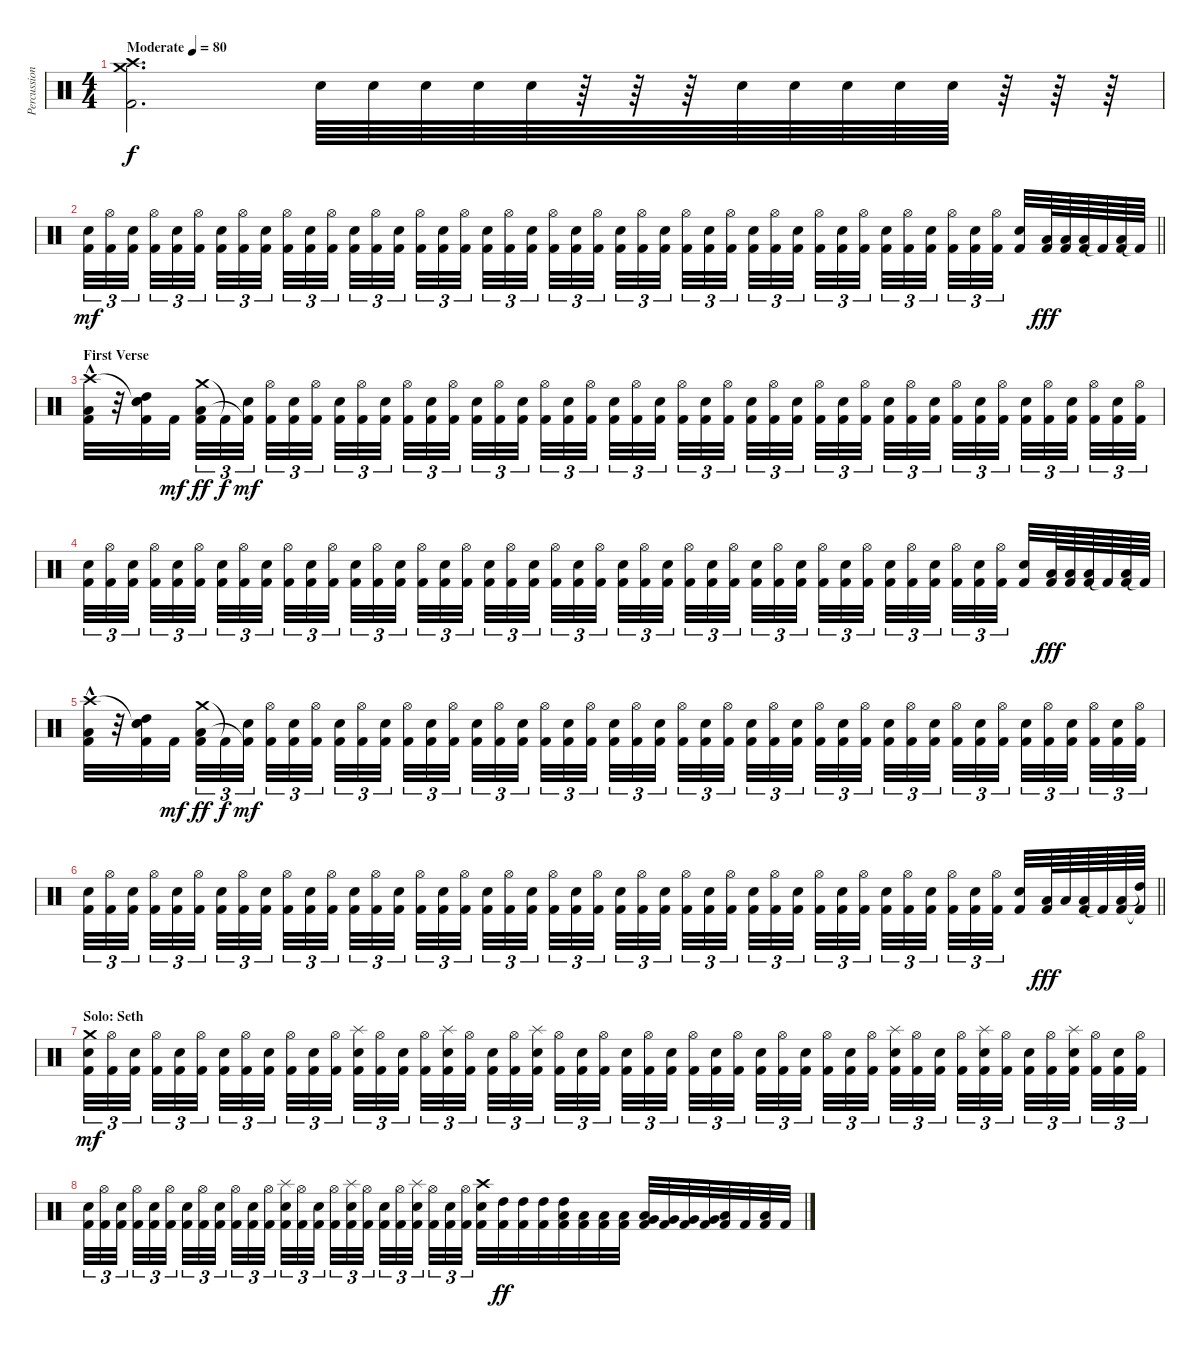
\track ("Percussion" "Percussion") {instrument percussion}
\staff {score}
\articulation defaults
\ts (4 4)
\tempo (80 "Moderate")
\clef neutral
\ks c
("Crash medium (hit)" "Crash high (hit)" "Kick (hit) 2").2{d dy f} "Snare (hit) 2".64 "Snare (hit) 2".64 "Snare (hit) 2".64 "Snare (hit) 2".64 "Snare (hit) 2".64 r.64 r.64 r.64 "Snare (hit) 2".64 "Snare (hit) 2".64 "Snare (hit) 2".64 "Snare (hit) 2".64 "Snare (hit) 2".64 r.64 r.64 r.64 |
\barLineRight lightlight
("Snare (hit) 2" "Kick (hit) 2").32{tu (3 2) dy mf} ("Hi-Hat (open)" "Kick (hit) 2").32{tu (3 2)} ("Snare (hit) 2" "Kick (hit) 2").32{tu (3 2) beam splitsecondary} ("Hi-Hat (open)" "Kick (hit) 2").32{tu (3 2)} ("Snare (hit) 2" "Kick (hit) 2").32{tu (3 2)} ("Hi-Hat (open)" "Kick (hit) 2").32{tu (3 2) beam splitsecondary} ("Snare (hit) 2" "Kick (hit) 2").32{tu (3 2)} ("Hi-Hat (open)" "Kick (hit) 2").32{tu (3 2)} ("Snare (hit) 2" "Kick (hit) 2").32{tu (3 2) beam splitsecondary} ("Hi-Hat (open)" "Kick (hit) 2").32{tu (3 2)} ("Snare (hit) 2" "Kick (hit) 2").32{tu (3 2)} ("Hi-Hat (open)" "Kick (hit) 2").32{tu (3 2)} ("Snare (hit) 2" "Kick (hit) 2").32{tu (3 2)} ("Hi-Hat (open)" "Kick (hit) 2").32{tu (3 2)} ("Snare (hit) 2" "Kick (hit) 2").32{tu (3 2) beam splitsecondary} ("Hi-Hat (open)" "Kick (hit) 2").32{tu (3 2)} ("Snare (hit) 2" "Kick (hit) 2").32{tu (3 2)} ("Hi-Hat (open)" "Kick (hit) 2").32{tu (3 2) beam splitsecondary} ("Snare (hit) 2" "Kick (hit) 2").32{tu (3 2)} ("Hi-Hat (open)" "Kick (hit) 2").32{tu (3 2)} ("Snare (hit) 2" "Kick (hit) 2").32{tu (3 2) beam splitsecondary} ("Hi-Hat (open)" "Kick (hit) 2").32{tu (3 2)} ("Snare (hit) 2" "Kick (hit) 2").32{tu (3 2)} ("Hi-Hat (open)" "Kick (hit) 2").32{tu (3 2)} ("Snare (hit) 2" "Kick (hit) 2").32{tu (3 2)} ("Hi-Hat (open)" "Kick (hit) 2").32{tu (3 2)} ("Snare (hit) 2" "Kick (hit) 2").32{tu (3 2) beam splitsecondary} ("Hi-Hat (open)" "Kick (hit) 2").32{tu (3 2)} ("Snare (hit) 2" "Kick (hit) 2").32{tu (3 2)} ("Hi-Hat (open)" "Kick (hit) 2").32{tu (3 2) beam splitsecondary} ("Snare (hit) 2" "Kick (hit) 2").32{tu (3 2)} ("Hi-Hat (open)" "Kick (hit) 2").32{tu (3 2)} ("Snare (hit) 2" "Kick (hit) 2").32{tu (3 2) beam splitsecondary} ("Hi-Hat (open)" "Kick (hit) 2").32{tu (3 2)} ("Snare (hit) 2" "Kick (hit) 2").32{tu (3 2)} ("Hi-Hat (open)" "Kick (hit) 2").32{tu (3 2)} ("Snare (hit) 2" "Kick (hit) 2").32{tu (3 2)} ("Hi-Hat (open)" "Kick (hit) 2").32{tu (3 2)} ("Snare (hit) 2" "Kick (hit) 2").32{tu (3 2) beam splitsecondary} ("Hi-Hat (open)" "Kick (hit) 2").32{tu (3 2)} ("Snare (hit) 2" "Kick (hit) 2").32{tu (3 2)} ("Hi-Hat (open)" "Kick (hit) 2").32{tu (3 2) beam splitsecondary} ("Snare (hit) 2" "Kick (hit) 2").32 ("Low Floor Tom (hit)" "Kick (hit) 2").64{dy fff} ("Low Floor Tom (hit)" "Kick (hit) 2").64 ("Low Floor Tom (hit)" "Kick (hit) 2").64 "Kick (hit) 2"{t}.64 ("Low Tom (hit)" "Kick (hit) 2").64 "Kick (hit) 2"{t}.64 |
\section ("" "First Verse")
("Crash high (hit)" "Low Tom (hit)"{hac} "Kick (hit) 2").32 r.32 ("Snare (hit)"{t} "Snare (hit) 2" "High Tom (hit)" "Kick (hit) 2").32 "Kick (hit) 2".32{dy mf beam splitsecondary} ("Crash medium (hit)" "Low Tom (hit)" "Kick (hit) 2").32{tu (3 2) dy ff} "Kick (hit) 2"{t}.32{tu (3 2) dy f} ("Snare (hit) 2" "Kick (hit) 2"{t}).32{tu (3 2) dy mf beam splitsecondary} ("Hi-Hat (open)" "Kick (hit) 2").32{tu (3 2)} ("Snare (hit) 2" "Kick (hit) 2").32{tu (3 2)} ("Hi-Hat (open)" "Kick (hit) 2").32{tu (3 2)} ("Snare (hit) 2" "Kick (hit) 2").32{tu (3 2)} ("Hi-Hat (open)" "Kick (hit) 2").32{tu (3 2)} ("Snare (hit) 2" "Kick (hit) 2").32{tu (3 2) beam splitsecondary} ("Hi-Hat (open)" "Kick (hit) 2").32{tu (3 2)} ("Snare (hit) 2" "Kick (hit) 2").32{tu (3 2)} ("Hi-Hat (open)" "Kick (hit) 2").32{tu (3 2) beam splitsecondary} ("Snare (hit) 2" "Kick (hit) 2").32{tu (3 2)} ("Hi-Hat (open)" "Kick (hit) 2").32{tu (3 2)} ("Snare (hit) 2" "Kick (hit) 2").32{tu (3 2) beam splitsecondary} ("Hi-Hat (open)" "Kick (hit) 2").32{tu (3 2)} ("Snare (hit) 2" "Kick (hit) 2").32{tu (3 2)} ("Hi-Hat (open)" "Kick (hit) 2").32{tu (3 2)} ("Snare (hit) 2" "Kick (hit) 2").32{tu (3 2)} ("Hi-Hat (open)" "Kick (hit) 2").32{tu (3 2)} ("Snare (hit) 2" "Kick (hit) 2").32{tu (3 2) beam splitsecondary} ("Hi-Hat (open)" "Kick (hit) 2").32{tu (3 2)} ("Snare (hit) 2" "Kick (hit) 2").32{tu (3 2)} ("Hi-Hat (open)" "Kick (hit) 2").32{tu (3 2) beam splitsecondary} ("Snare (hit) 2" "Kick (hit) 2").32{tu (3 2)} ("Hi-Hat (open)" "Kick (hit) 2").32{tu (3 2)} ("Snare (hit) 2" "Kick (hit) 2").32{tu (3 2) beam splitsecondary} ("Hi-Hat (open)" "Kick (hit) 2").32{tu (3 2)} ("Snare (hit) 2" "Kick (hit) 2").32{tu (3 2)} ("Hi-Hat (open)" "Kick (hit) 2").32{tu (3 2)} ("Snare (hit) 2" "Kick (hit) 2").32{tu (3 2)} ("Hi-Hat (open)" "Kick (hit) 2").32{tu (3 2)} ("Snare (hit) 2" "Kick (hit) 2").32{tu (3 2) beam splitsecondary} ("Hi-Hat (open)" "Kick (hit) 2").32{tu (3 2)} ("Snare (hit) 2" "Kick (hit) 2").32{tu (3 2)} ("Hi-Hat (open)" "Kick (hit) 2").32{tu (3 2) beam splitsecondary} ("Snare (hit) 2" "Kick (hit) 2").32{tu (3 2)} ("Hi-Hat (open)" "Kick (hit) 2").32{tu (3 2)} ("Snare (hit) 2" "Kick (hit) 2").32{tu (3 2) beam splitsecondary} ("Hi-Hat (open)" "Kick (hit) 2").32{tu (3 2)} ("Snare (hit) 2" "Kick (hit) 2").32{tu (3 2)} ("Hi-Hat (open)" "Kick (hit) 2").32{tu (3 2)} |
("Snare (hit) 2" "Kick (hit) 2").32{tu (3 2)} ("Hi-Hat (open)" "Kick (hit) 2").32{tu (3 2)} ("Snare (hit) 2" "Kick (hit) 2").32{tu (3 2) beam splitsecondary} ("Hi-Hat (open)" "Kick (hit) 2").32{tu (3 2)} ("Snare (hit) 2" "Kick (hit) 2").32{tu (3 2)} ("Hi-Hat (open)" "Kick (hit) 2").32{tu (3 2) beam splitsecondary} ("Snare (hit) 2" "Kick (hit) 2").32{tu (3 2)} ("Hi-Hat (open)" "Kick (hit) 2").32{tu (3 2)} ("Snare (hit) 2" "Kick (hit) 2").32{tu (3 2) beam splitsecondary} ("Hi-Hat (open)" "Kick (hit) 2").32{tu (3 2)} ("Snare (hit) 2" "Kick (hit) 2").32{tu (3 2)} ("Hi-Hat (open)" "Kick (hit) 2").32{tu (3 2)} ("Snare (hit) 2" "Kick (hit) 2").32{tu (3 2)} ("Hi-Hat (open)" "Kick (hit) 2").32{tu (3 2)} ("Snare (hit) 2" "Kick (hit) 2").32{tu (3 2) beam splitsecondary} ("Hi-Hat (open)" "Kick (hit) 2").32{tu (3 2)} ("Snare (hit) 2" "Kick (hit) 2").32{tu (3 2)} ("Hi-Hat (open)" "Kick (hit) 2").32{tu (3 2) beam splitsecondary} ("Snare (hit) 2" "Kick (hit) 2").32{tu (3 2)} ("Hi-Hat (open)" "Kick (hit) 2").32{tu (3 2)} ("Snare (hit) 2" "Kick (hit) 2").32{tu (3 2) beam splitsecondary} ("Hi-Hat (open)" "Kick (hit) 2").32{tu (3 2)} ("Snare (hit) 2" "Kick (hit) 2").32{tu (3 2)} ("Hi-Hat (open)" "Kick (hit) 2").32{tu (3 2)} ("Snare (hit) 2" "Kick (hit) 2").32{tu (3 2)} ("Hi-Hat (open)" "Kick (hit) 2").32{tu (3 2)} ("Snare (hit) 2" "Kick (hit) 2").32{tu (3 2) beam splitsecondary} ("Hi-Hat (open)" "Kick (hit) 2").32{tu (3 2)} ("Snare (hit) 2" "Kick (hit) 2").32{tu (3 2)} ("Hi-Hat (open)" "Kick (hit) 2").32{tu (3 2) beam splitsecondary} ("Snare (hit) 2" "Kick (hit) 2").32{tu (3 2)} ("Hi-Hat (open)" "Kick (hit) 2").32{tu (3 2)} ("Snare (hit) 2" "Kick (hit) 2").32{tu (3 2) beam splitsecondary} ("Hi-Hat (open)" "Kick (hit) 2").32{tu (3 2)} ("Snare (hit) 2" "Kick (hit) 2").32{tu (3 2)} ("Hi-Hat (open)" "Kick (hit) 2").32{tu (3 2)} ("Snare (hit) 2" "Kick (hit) 2").32{tu (3 2)} ("Hi-Hat (open)" "Kick (hit) 2").32{tu (3 2)} ("Snare (hit) 2" "Kick (hit) 2").32{tu (3 2) beam splitsecondary} ("Hi-Hat (open)" "Kick (hit) 2").32{tu (3 2)} ("Snare (hit) 2" "Kick (hit) 2").32{tu (3 2)} ("Hi-Hat (open)" "Kick (hit) 2").32{tu (3 2) beam splitsecondary} ("Snare (hit) 2" "Kick (hit) 2").32 ("Low Floor Tom (hit)" "Kick (hit) 2").64{dy fff} ("Low Floor Tom (hit)" "Kick (hit) 2").64 ("Low Floor Tom (hit)" "Kick (hit) 2").64 "Kick (hit) 2"{t}.64 ("Low Tom (hit)" "Kick (hit) 2").64 "Kick (hit) 2"{t}.64 |
("Crash high (hit)" "Low Tom (hit)"{hac} "Kick (hit) 2").32 r.32 ("Snare (hit)"{t} "Snare (hit) 2" "High Tom (hit)" "Kick (hit) 2").32 "Kick (hit) 2".32{dy mf beam splitsecondary} ("Crash medium (hit)" "Low Tom (hit)" "Kick (hit) 2").32{tu (3 2) dy ff} "Kick (hit) 2"{t}.32{tu (3 2) dy f} ("Snare (hit) 2" "Kick (hit) 2"{t}).32{tu (3 2) dy mf beam splitsecondary} ("Hi-Hat (open)" "Kick (hit) 2").32{tu (3 2)} ("Snare (hit) 2" "Kick (hit) 2").32{tu (3 2)} ("Hi-Hat (open)" "Kick (hit) 2").32{tu (3 2)} ("Snare (hit) 2" "Kick (hit) 2").32{tu (3 2)} ("Hi-Hat (open)" "Kick (hit) 2").32{tu (3 2)} ("Snare (hit) 2" "Kick (hit) 2").32{tu (3 2) beam splitsecondary} ("Hi-Hat (open)" "Kick (hit) 2").32{tu (3 2)} ("Snare (hit) 2" "Kick (hit) 2").32{tu (3 2)} ("Hi-Hat (open)" "Kick (hit) 2").32{tu (3 2) beam splitsecondary} ("Snare (hit) 2" "Kick (hit) 2").32{tu (3 2)} ("Hi-Hat (open)" "Kick (hit) 2").32{tu (3 2)} ("Snare (hit) 2" "Kick (hit) 2").32{tu (3 2) beam splitsecondary} ("Hi-Hat (open)" "Kick (hit) 2").32{tu (3 2)} ("Snare (hit) 2" "Kick (hit) 2").32{tu (3 2)} ("Hi-Hat (open)" "Kick (hit) 2").32{tu (3 2)} ("Snare (hit) 2" "Kick (hit) 2").32{tu (3 2)} ("Hi-Hat (open)" "Kick (hit) 2").32{tu (3 2)} ("Snare (hit) 2" "Kick (hit) 2").32{tu (3 2) beam splitsecondary} ("Hi-Hat (open)" "Kick (hit) 2").32{tu (3 2)} ("Snare (hit) 2" "Kick (hit) 2").32{tu (3 2)} ("Hi-Hat (open)" "Kick (hit) 2").32{tu (3 2) beam splitsecondary} ("Snare (hit) 2" "Kick (hit) 2").32{tu (3 2)} ("Hi-Hat (open)" "Kick (hit) 2").32{tu (3 2)} ("Snare (hit) 2" "Kick (hit) 2").32{tu (3 2) beam splitsecondary} ("Hi-Hat (open)" "Kick (hit) 2").32{tu (3 2)} ("Snare (hit) 2" "Kick (hit) 2").32{tu (3 2)} ("Hi-Hat (open)" "Kick (hit) 2").32{tu (3 2)} ("Snare (hit) 2" "Kick (hit) 2").32{tu (3 2)} ("Hi-Hat (open)" "Kick (hit) 2").32{tu (3 2)} ("Snare (hit) 2" "Kick (hit) 2").32{tu (3 2) beam splitsecondary} ("Hi-Hat (open)" "Kick (hit) 2").32{tu (3 2)} ("Snare (hit) 2" "Kick (hit) 2").32{tu (3 2)} ("Hi-Hat (open)" "Kick (hit) 2").32{tu (3 2) beam splitsecondary} ("Snare (hit) 2" "Kick (hit) 2").32{tu (3 2)} ("Hi-Hat (open)" "Kick (hit) 2").32{tu (3 2)} ("Snare (hit) 2" "Kick (hit) 2").32{tu (3 2) beam splitsecondary} ("Hi-Hat (open)" "Kick (hit) 2").32{tu (3 2)} ("Snare (hit) 2" "Kick (hit) 2").32{tu (3 2)} ("Hi-Hat (open)" "Kick (hit) 2").32{tu (3 2)} |
\barLineRight lightlight
("Snare (hit) 2" "Kick (hit) 2").32{tu (3 2)} ("Hi-Hat (open)" "Kick (hit) 2").32{tu (3 2)} ("Snare (hit) 2" "Kick (hit) 2").32{tu (3 2) beam splitsecondary} ("Hi-Hat (open)" "Kick (hit) 2").32{tu (3 2)} ("Snare (hit) 2" "Kick (hit) 2").32{tu (3 2)} ("Hi-Hat (open)" "Kick (hit) 2").32{tu (3 2) beam splitsecondary} ("Snare (hit) 2" "Kick (hit) 2").32{tu (3 2)} ("Hi-Hat (open)" "Kick (hit) 2").32{tu (3 2)} ("Snare (hit) 2" "Kick (hit) 2").32{tu (3 2) beam splitsecondary} ("Hi-Hat (open)" "Kick (hit) 2").32{tu (3 2)} ("Snare (hit) 2" "Kick (hit) 2").32{tu (3 2)} ("Hi-Hat (open)" "Kick (hit) 2").32{tu (3 2)} ("Snare (hit) 2" "Kick (hit) 2").32{tu (3 2)} ("Hi-Hat (open)" "Kick (hit) 2").32{tu (3 2)} ("Snare (hit) 2" "Kick (hit) 2").32{tu (3 2) beam splitsecondary} ("Hi-Hat (open)" "Kick (hit) 2").32{tu (3 2)} ("Snare (hit) 2" "Kick (hit) 2").32{tu (3 2)} ("Hi-Hat (open)" "Kick (hit) 2").32{tu (3 2) beam splitsecondary} ("Snare (hit) 2" "Kick (hit) 2").32{tu (3 2)} ("Hi-Hat (open)" "Kick (hit) 2").32{tu (3 2)} ("Snare (hit) 2" "Kick (hit) 2").32{tu (3 2) beam splitsecondary} ("Hi-Hat (open)" "Kick (hit) 2").32{tu (3 2)} ("Snare (hit) 2" "Kick (hit) 2").32{tu (3 2)} ("Hi-Hat (open)" "Kick (hit) 2").32{tu (3 2)} ("Snare (hit) 2" "Kick (hit) 2").32{tu (3 2)} ("Hi-Hat (open)" "Kick (hit) 2").32{tu (3 2)} ("Snare (hit) 2" "Kick (hit) 2").32{tu (3 2) beam splitsecondary} ("Hi-Hat (open)" "Kick (hit) 2").32{tu (3 2)} ("Snare (hit) 2" "Kick (hit) 2").32{tu (3 2)} ("Hi-Hat (open)" "Kick (hit) 2").32{tu (3 2) beam splitsecondary} ("Snare (hit) 2" "Kick (hit) 2").32{tu (3 2)} ("Hi-Hat (open)" "Kick (hit) 2").32{tu (3 2)} ("Snare (hit) 2" "Kick (hit) 2").32{tu (3 2) beam splitsecondary} ("Hi-Hat (open)" "Kick (hit) 2").32{tu (3 2)} ("Snare (hit) 2" "Kick (hit) 2").32{tu (3 2)} ("Hi-Hat (open)" "Kick (hit) 2").32{tu (3 2)} ("Snare (hit) 2" "Kick (hit) 2").32{tu (3 2)} ("Hi-Hat (open)" "Kick (hit) 2").32{tu (3 2)} ("Snare (hit) 2" "Kick (hit) 2").32{tu (3 2) beam splitsecondary} ("Hi-Hat (open)" "Kick (hit) 2").32{tu (3 2)} ("Snare (hit) 2" "Kick (hit) 2").32{tu (3 2)} ("Hi-Hat (open)" "Kick (hit) 2").32{tu (3 2) beam splitsecondary} ("Snare (hit) 2" "Kick (hit) 2").32 ("Low Floor Tom (hit)" "Kick (hit) 2").64{dy fff} "Low Floor Tom (hit)".64 ("Low Floor Tom (hit)" "Kick (hit) 2").64 "Kick (hit) 2"{t}.64 ("Low Tom (hit)" "Kick (hit) 2").64 ("High Tom (hit)"{t} "Kick (hit) 2"{t}).64 |
\section ("" "Solo: Seth")
("Crash medium (hit)" "Snare (hit) 2" "Kick (hit) 2").32{tu (3 2) dy mf} ("Hi-Hat (open)" "Kick (hit) 2").32{tu (3 2)} ("Snare (hit) 2" "Kick (hit) 2").32{tu (3 2) beam splitsecondary} ("Hi-Hat (open)" "Kick (hit) 2").32{tu (3 2)} ("Snare (hit) 2" "Kick (hit) 2").32{tu (3 2)} ("Hi-Hat (open)" "Kick (hit) 2").32{tu (3 2) beam splitsecondary} ("Snare (hit) 2" "Kick (hit) 2").32{tu (3 2)} ("Hi-Hat (open)" "Kick (hit) 2").32{tu (3 2)} ("Snare (hit) 2" "Kick (hit) 2").32{tu (3 2) beam splitsecondary} ("Hi-Hat (open)" "Kick (hit) 2").32{tu (3 2)} ("Snare (hit) 2" "Kick (hit) 2").32{tu (3 2)} ("Hi-Hat (open)" "Kick (hit) 2").32{tu (3 2)} ("Splash (hit)" "Snare (hit) 2" "Kick (hit) 2").32{tu (3 2)} ("Hi-Hat (open)" "Kick (hit) 2").32{tu (3 2)} ("Snare (hit) 2" "Kick (hit) 2").32{tu (3 2) beam splitsecondary} ("Hi-Hat (open)" "Kick (hit) 2").32{tu (3 2)} ("Splash (hit)" "Snare (hit) 2" "Kick (hit) 2").32{tu (3 2)} ("Hi-Hat (open)" "Kick (hit) 2").32{tu (3 2) beam splitsecondary} ("Snare (hit) 2" "Kick (hit) 2").32{tu (3 2)} ("Hi-Hat (open)" "Kick (hit) 2").32{tu (3 2)} ("Splash (hit)" "Snare (hit) 2" "Kick (hit) 2").32{tu (3 2) beam splitsecondary} ("Hi-Hat (open)" "Kick (hit) 2").32{tu (3 2)} ("Snare (hit) 2" "Kick (hit) 2").32{tu (3 2)} ("Hi-Hat (open)" "Kick (hit) 2").32{tu (3 2)} ("Snare (hit) 2" "Kick (hit) 2").32{tu (3 2)} ("Hi-Hat (open)" "Kick (hit) 2").32{tu (3 2)} ("Snare (hit) 2" "Kick (hit) 2").32{tu (3 2) beam splitsecondary} ("Hi-Hat (open)" "Kick (hit) 2").32{tu (3 2)} ("Snare (hit) 2" "Kick (hit) 2").32{tu (3 2)} ("Hi-Hat (open)" "Kick (hit) 2").32{tu (3 2) beam splitsecondary} ("Snare (hit) 2" "Kick (hit) 2").32{tu (3 2)} ("Hi-Hat (open)" "Kick (hit) 2").32{tu (3 2)} ("Snare (hit) 2" "Kick (hit) 2").32{tu (3 2) beam splitsecondary} ("Hi-Hat (open)" "Kick (hit) 2").32{tu (3 2)} ("Snare (hit) 2" "Kick (hit) 2").32{tu (3 2)} ("Hi-Hat (open)" "Kick (hit) 2").32{tu (3 2)} ("Splash (hit)" "Snare (hit) 2" "Kick (hit) 2").32{tu (3 2)} ("Hi-Hat (open)" "Kick (hit) 2").32{tu (3 2)} ("Snare (hit) 2" "Kick (hit) 2").32{tu (3 2) beam splitsecondary} ("Hi-Hat (open)" "Kick (hit) 2").32{tu (3 2)} ("Splash (hit)" "Snare (hit) 2" "Kick (hit) 2").32{tu (3 2)} ("Hi-Hat (open)" "Kick (hit) 2").32{tu (3 2) beam splitsecondary} ("Snare (hit) 2" "Kick (hit) 2").32{tu (3 2)} ("Hi-Hat (open)" "Kick (hit) 2").32{tu (3 2)} ("Splash (hit)" "Snare (hit) 2" "Kick (hit) 2").32{tu (3 2) beam splitsecondary} ("Hi-Hat (open)" "Kick (hit) 2").32{tu (3 2)} ("Snare (hit) 2" "Kick (hit) 2").32{tu (3 2)} ("Hi-Hat (open)" "Kick (hit) 2").32{tu (3 2)} |
("Snare (hit) 2" "Kick (hit) 2").32{tu (3 2)} ("Hi-Hat (open)" "Kick (hit) 2").32{tu (3 2)} ("Snare (hit) 2" "Kick (hit) 2").32{tu (3 2) beam splitsecondary} ("Hi-Hat (open)" "Kick (hit) 2").32{tu (3 2)} ("Snare (hit) 2" "Kick (hit) 2").32{tu (3 2)} ("Hi-Hat (open)" "Kick (hit) 2").32{tu (3 2) beam splitsecondary} ("Snare (hit) 2" "Kick (hit) 2").32{tu (3 2)} ("Hi-Hat (open)" "Kick (hit) 2").32{tu (3 2)} ("Snare (hit) 2" "Kick (hit) 2").32{tu (3 2) beam splitsecondary} ("Hi-Hat (open)" "Kick (hit) 2").32{tu (3 2)} ("Snare (hit) 2" "Kick (hit) 2").32{tu (3 2)} ("Hi-Hat (open)" "Kick (hit) 2").32{tu (3 2)} ("Splash (hit)" "Snare (hit) 2" "Kick (hit) 2").32{tu (3 2)} ("Hi-Hat (open)" "Kick (hit) 2").32{tu (3 2)} ("Snare (hit) 2" "Kick (hit) 2").32{tu (3 2) beam splitsecondary} ("Hi-Hat (open)" "Kick (hit) 2").32{tu (3 2)} ("Splash (hit)" "Snare (hit) 2" "Kick (hit) 2").32{tu (3 2)} ("Hi-Hat (open)" "Kick (hit) 2").32{tu (3 2) beam splitsecondary} ("Snare (hit) 2" "Kick (hit) 2").32{tu (3 2)} ("Hi-Hat (open)" "Kick (hit) 2").32{tu (3 2)} ("Splash (hit)" "Snare (hit) 2" "Kick (hit) 2").32{tu (3 2) beam splitsecondary} ("Hi-Hat (open)" "Kick (hit) 2").32{tu (3 2)} ("Snare (hit) 2" "Kick (hit) 2").32{tu (3 2)} ("Hi-Hat (open)" "Kick (hit) 2").32{tu (3 2)} ("Crash high (hit)" "Snare (hit) 2" "Kick (hit) 2").32 ("High Tom (hit)" "Kick (hit) 2").32{dy ff} ("High Tom (hit)" "Kick (hit) 2").32 ("High Tom (hit)" "Kick (hit) 2").32 ("High Tom (hit)" "Low Tom (hit)" "Kick (hit) 2").32 ("Low Tom (hit)" "Kick (hit) 2").32 ("Low Tom (hit)" "Kick (hit) 2").32 ("Low Tom (hit)" "Kick (hit) 2").32 ("Low Tom (hit)" "Very Low Tom (hit)" "Kick (hit) 2").32 ("Very Low Tom (hit)" "Kick (hit) 2").32 ("Very Low Tom (hit)" "Kick (hit) 2").32 ("Very Low Tom (hit)" "Kick (hit) 2").32 ("Low Floor Tom (hit)" "Kick (hit) 2").32 "Kick (hit) 2".32 ("Low Floor Tom (hit)" "Kick (hit) 2").32 "Kick (hit) 2".32
